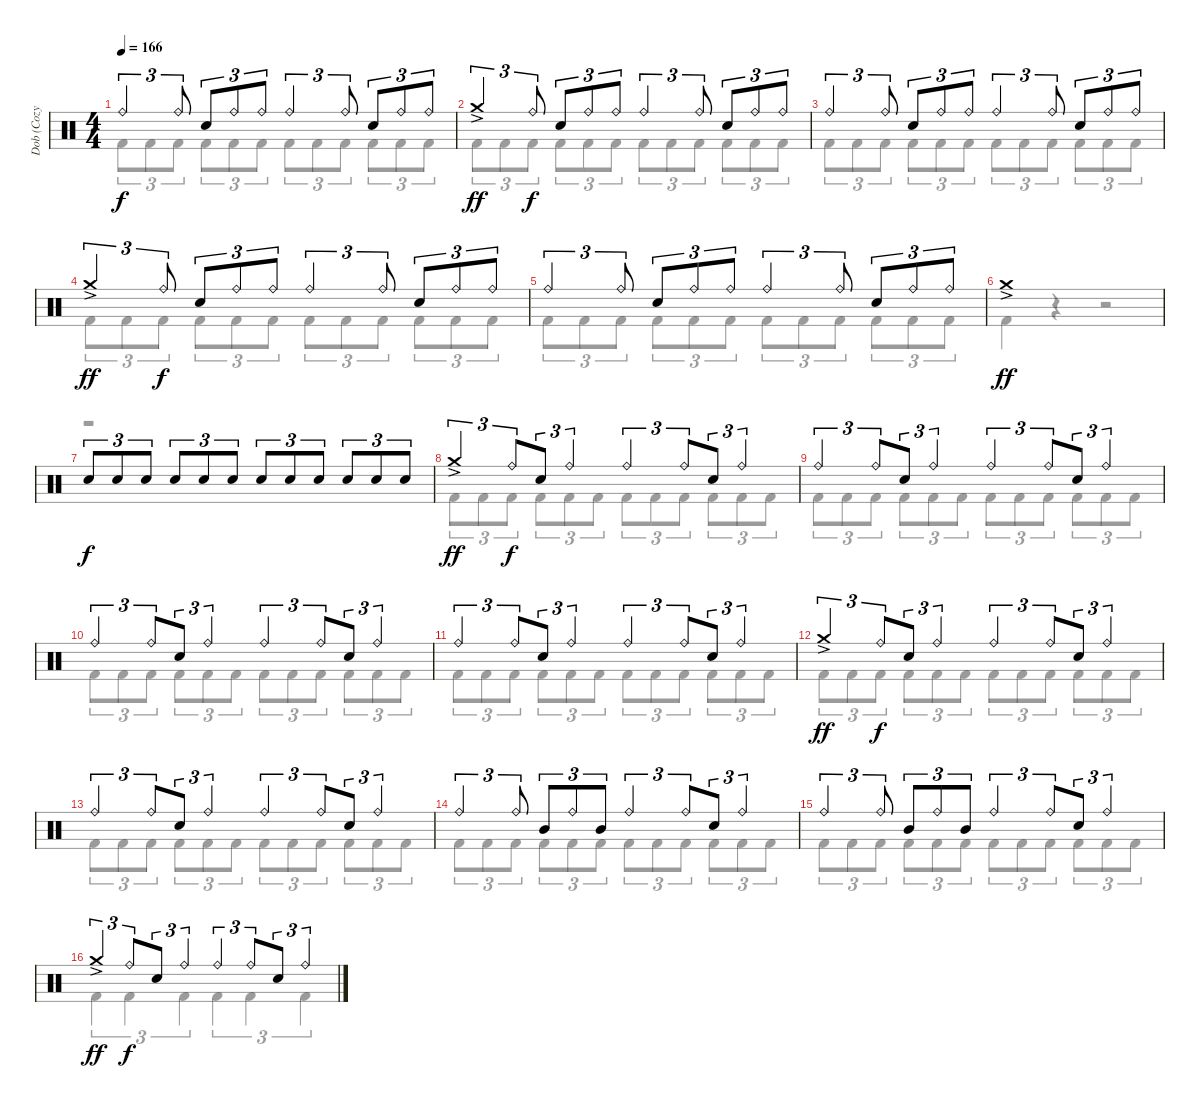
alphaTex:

\track ("Dob (Cozy Powell)" "Dob (Cozy ") {instrument percussion}
\staff {score}
\articulation defaults
\voice
\ts (4 4)
\tempo 166
\clef neutral
\ks c "Ride (bell)".4{tu (3 2) dy f} "Ride (bell)".8{tu (3 2)} "Electric Snare (hit)".8{tu (3 2)} "Ride (bell)".8{tu (3 2)} "Ride (bell)".8{tu (3 2)} "Ride (bell)".4{tu (3 2)} "Ride (bell)".8{tu (3 2)} "Electric Snare (hit)".8{tu (3 2)} "Ride (bell)".8{tu (3 2)} "Ride (bell)".8{tu (3 2)}
|
"Crash medium (hit)"{ac}.4{tu (3 2) dy ff} "Ride (bell)".8{tu (3 2) dy f} "Electric Snare (hit)".8{tu (3 2)} "Ride (bell)".8{tu (3 2)} "Ride (bell)".8{tu (3 2)} "Ride (bell)".4{tu (3 2)} "Ride (bell)".8{tu (3 2)} "Electric Snare (hit)".8{tu (3 2)} "Ride (bell)".8{tu (3 2)} "Ride (bell)".8{tu (3 2)} |
"Ride (bell)".4{tu (3 2)} "Ride (bell)".8{tu (3 2)} "Electric Snare (hit)".8{tu (3 2)} "Ride (bell)".8{tu (3 2)} "Ride (bell)".8{tu (3 2)} "Ride (bell)".4{tu (3 2)} "Ride (bell)".8{tu (3 2)} "Electric Snare (hit)".8{tu (3 2)} "Ride (bell)".8{tu (3 2)} "Ride (bell)".8{tu (3 2)} |
"Crash medium (hit)"{ac}.4{tu (3 2) dy ff} "Ride (bell)".8{tu (3 2) dy f} "Electric Snare (hit)".8{tu (3 2)} "Ride (bell)".8{tu (3 2)} "Ride (bell)".8{tu (3 2)} "Ride (bell)".4{tu (3 2)} "Ride (bell)".8{tu (3 2)} "Electric Snare (hit)".8{tu (3 2)} "Ride (bell)".8{tu (3 2)} "Ride (bell)".8{tu (3 2)} |
"Ride (bell)".4{tu (3 2)} "Ride (bell)".8{tu (3 2)} "Electric Snare (hit)".8{tu (3 2)} "Ride (bell)".8{tu (3 2)} "Ride (bell)".8{tu (3 2)} "Ride (bell)".4{tu (3 2)} "Ride (bell)".8{tu (3 2)} "Electric Snare (hit)".8{tu (3 2)} "Ride (bell)".8{tu (3 2)} "Ride (bell)".8{tu (3 2)} |
"Crash medium (hit)"{ac}.1{dy ff} |
"Electric Snare (hit)".8{tu (3 2) dy f} "Electric Snare (hit)".8{tu (3 2)} "Electric Snare (hit)".8{tu (3 2)} "Electric Snare (hit)".8{tu (3 2)} "Electric Snare (hit)".8{tu (3 2)} "Electric Snare (hit)".8{tu (3 2)} "Electric Snare (hit)".8{tu (3 2)} "Electric Snare (hit)".8{tu (3 2)} "Electric Snare (hit)".8{tu (3 2)} "Electric Snare (hit)".8{tu (3 2)} "Electric Snare (hit)".8{tu (3 2)} "Electric Snare (hit)".8{tu (3 2)} |
"Crash medium (hit)"{ac}.4{tu (3 2) dy ff} "Ride (bell)".8{tu (3 2) dy f beam merge} "Electric Snare (hit)".8{tu (3 2)} "Ride (bell)".4{tu (3 2)} "Ride (bell)".4{tu (3 2)} "Ride (bell)".8{tu (3 2) beam merge} "Electric Snare (hit)".8{tu (3 2)} "Ride (bell)".4{tu (3 2)} |
"Ride (bell)".4{tu (3 2)} "Ride (bell)".8{tu (3 2) beam merge} "Electric Snare (hit)".8{tu (3 2)} "Ride (bell)".4{tu (3 2)} "Ride (bell)".4{tu (3 2)} "Ride (bell)".8{tu (3 2) beam merge} "Electric Snare (hit)".8{tu (3 2)} "Ride (bell)".4{tu (3 2)} |
"Ride (bell)".4{tu (3 2)} "Ride (bell)".8{tu (3 2) beam merge} "Electric Snare (hit)".8{tu (3 2)} "Ride (bell)".4{tu (3 2)} "Ride (bell)".4{tu (3 2)} "Ride (bell)".8{tu (3 2) beam merge} "Electric Snare (hit)".8{tu (3 2)} "Ride (bell)".4{tu (3 2)} |
"Ride (bell)".4{tu (3 2)} "Ride (bell)".8{tu (3 2) beam merge} "Electric Snare (hit)".8{tu (3 2)} "Ride (bell)".4{tu (3 2)} "Ride (bell)".4{tu (3 2)} "Ride (bell)".8{tu (3 2) beam merge} "Electric Snare (hit)".8{tu (3 2)} "Ride (bell)".4{tu (3 2)} |
"Crash medium (hit)"{ac}.4{tu (3 2) dy ff} "Ride (bell)".8{tu (3 2) dy f beam merge} "Electric Snare (hit)".8{tu (3 2)} "Ride (bell)".4{tu (3 2)} "Ride (bell)".4{tu (3 2)} "Ride (bell)".8{tu (3 2) beam merge} "Electric Snare (hit)".8{tu (3 2)} "Ride (bell)".4{tu (3 2)} |
"Ride (bell)".4{tu (3 2)} "Ride (bell)".8{tu (3 2) beam merge} "Electric Snare (hit)".8{tu (3 2)} "Ride (bell)".4{tu (3 2)} "Ride (bell)".4{tu (3 2)} "Ride (bell)".8{tu (3 2) beam merge} "Electric Snare (hit)".8{tu (3 2)} "Ride (bell)".4{tu (3 2)} |
"Ride (bell)".4{tu (3 2)} "Ride (bell)".8{tu (3 2)} "Mid Tom (hit)".8{tu (3 2)} "Ride (bell)".8{tu (3 2)} "Mid Tom (hit)".8{tu (3 2)} "Ride (bell)".4{tu (3 2)} "Ride (bell)".8{tu (3 2) beam merge} "Electric Snare (hit)".8{tu (3 2)} "Ride (bell)".4{tu (3 2)} |
"Ride (bell)".4{tu (3 2)} "Ride (bell)".8{tu (3 2)} "Mid Tom (hit)".8{tu (3 2)} "Ride (bell)".8{tu (3 2)} "Mid Tom (hit)".8{tu (3 2)} "Ride (bell)".4{tu (3 2)} "Ride (bell)".8{tu (3 2) beam merge} "Electric Snare (hit)".8{tu (3 2)} "Ride (bell)".4{tu (3 2)} |
"Crash medium (hit)"{ac}.4{tu (3 2) dy ff} "Ride (bell)".8{tu (3 2) dy f beam merge} "Electric Snare (hit)".8{tu (3 2)} "Ride (bell)".4{tu (3 2)} "Ride (bell)".4{tu (3 2)} "Ride (bell)".8{tu (3 2) beam merge} "Electric Snare (hit)".8{tu (3 2)} "Ride (bell)".4{tu (3 2)}
\voice
\clef neutral
\ottava regular
\simile none
\ks c "Kick (hit) 2".8{tu (3 2) dy f} "Kick (hit) 2".8{tu (3 2)} "Kick (hit) 2".8{tu (3 2)} "Kick (hit) 2".8{tu (3 2)} "Kick (hit) 2".8{tu (3 2)} "Kick (hit) 2".8{tu (3 2)} "Kick (hit) 2".8{tu (3 2)} "Kick (hit) 2".8{tu (3 2)} "Kick (hit) 2".8{tu (3 2)} "Kick (hit) 2".8{tu (3 2)} "Kick (hit) 2".8{tu (3 2)} "Kick (hit) 2".8{tu (3 2)}
|
"Kick (hit) 2".8{tu (3 2)} "Kick (hit) 2".8{tu (3 2)} "Kick (hit) 2".8{tu (3 2)} "Kick (hit) 2".8{tu (3 2)} "Kick (hit) 2".8{tu (3 2)} "Kick (hit) 2".8{tu (3 2)} "Kick (hit) 2".8{tu (3 2)} "Kick (hit) 2".8{tu (3 2)} "Kick (hit) 2".8{tu (3 2)} "Kick (hit) 2".8{tu (3 2)} "Kick (hit) 2".8{tu (3 2)} "Kick (hit) 2".8{tu (3 2)} |
"Kick (hit) 2".8{tu (3 2)} "Kick (hit) 2".8{tu (3 2)} "Kick (hit) 2".8{tu (3 2)} "Kick (hit) 2".8{tu (3 2)} "Kick (hit) 2".8{tu (3 2)} "Kick (hit) 2".8{tu (3 2)} "Kick (hit) 2".8{tu (3 2)} "Kick (hit) 2".8{tu (3 2)} "Kick (hit) 2".8{tu (3 2)} "Kick (hit) 2".8{tu (3 2)} "Kick (hit) 2".8{tu (3 2)} "Kick (hit) 2".8{tu (3 2)} |
"Kick (hit) 2".8{tu (3 2)} "Kick (hit) 2".8{tu (3 2)} "Kick (hit) 2".8{tu (3 2)} "Kick (hit) 2".8{tu (3 2)} "Kick (hit) 2".8{tu (3 2)} "Kick (hit) 2".8{tu (3 2)} "Kick (hit) 2".8{tu (3 2)} "Kick (hit) 2".8{tu (3 2)} "Kick (hit) 2".8{tu (3 2)} "Kick (hit) 2".8{tu (3 2)} "Kick (hit) 2".8{tu (3 2)} "Kick (hit) 2".8{tu (3 2)} |
"Kick (hit) 2".8{tu (3 2)} "Kick (hit) 2".8{tu (3 2)} "Kick (hit) 2".8{tu (3 2)} "Kick (hit) 2".8{tu (3 2)} "Kick (hit) 2".8{tu (3 2)} "Kick (hit) 2".8{tu (3 2)} "Kick (hit) 2".8{tu (3 2)} "Kick (hit) 2".8{tu (3 2)} "Kick (hit) 2".8{tu (3 2)} "Kick (hit) 2".8{tu (3 2)} "Kick (hit) 2".8{tu (3 2)} "Kick (hit) 2".8{tu (3 2)} |
"Kick (hit) 2".4 r.4 r.2 |
r.1 |
"Kick (hit) 2".8{tu (3 2)} "Kick (hit) 2".8{tu (3 2)} "Kick (hit) 2".8{tu (3 2)} "Kick (hit) 2".8{tu (3 2)} "Kick (hit) 2".8{tu (3 2)} "Kick (hit) 2".8{tu (3 2)} "Kick (hit) 2".8{tu (3 2)} "Kick (hit) 2".8{tu (3 2)} "Kick (hit) 2".8{tu (3 2)} "Kick (hit) 2".8{tu (3 2)} "Kick (hit) 2".8{tu (3 2)} "Kick (hit) 2".8{tu (3 2)} |
"Kick (hit) 2".8{tu (3 2)} "Kick (hit) 2".8{tu (3 2)} "Kick (hit) 2".8{tu (3 2)} "Kick (hit) 2".8{tu (3 2)} "Kick (hit) 2".8{tu (3 2)} "Kick (hit) 2".8{tu (3 2)} "Kick (hit) 2".8{tu (3 2)} "Kick (hit) 2".8{tu (3 2)} "Kick (hit) 2".8{tu (3 2)} "Kick (hit) 2".8{tu (3 2)} "Kick (hit) 2".8{tu (3 2)} "Kick (hit) 2".8{tu (3 2)} |
"Kick (hit) 2".8{tu (3 2)} "Kick (hit) 2".8{tu (3 2)} "Kick (hit) 2".8{tu (3 2)} "Kick (hit) 2".8{tu (3 2)} "Kick (hit) 2".8{tu (3 2)} "Kick (hit) 2".8{tu (3 2)} "Kick (hit) 2".8{tu (3 2)} "Kick (hit) 2".8{tu (3 2)} "Kick (hit) 2".8{tu (3 2)} "Kick (hit) 2".8{tu (3 2)} "Kick (hit) 2".8{tu (3 2)} "Kick (hit) 2".8{tu (3 2)} |
"Kick (hit) 2".8{tu (3 2)} "Kick (hit) 2".8{tu (3 2)} "Kick (hit) 2".8{tu (3 2)} "Kick (hit) 2".8{tu (3 2)} "Kick (hit) 2".8{tu (3 2)} "Kick (hit) 2".8{tu (3 2)} "Kick (hit) 2".8{tu (3 2)} "Kick (hit) 2".8{tu (3 2)} "Kick (hit) 2".8{tu (3 2)} "Kick (hit) 2".8{tu (3 2)} "Kick (hit) 2".8{tu (3 2)} "Kick (hit) 2".8{tu (3 2)} |
"Kick (hit) 2".8{tu (3 2)} "Kick (hit) 2".8{tu (3 2)} "Kick (hit) 2".8{tu (3 2)} "Kick (hit) 2".8{tu (3 2)} "Kick (hit) 2".8{tu (3 2)} "Kick (hit) 2".8{tu (3 2)} "Kick (hit) 2".8{tu (3 2)} "Kick (hit) 2".8{tu (3 2)} "Kick (hit) 2".8{tu (3 2)} "Kick (hit) 2".8{tu (3 2)} "Kick (hit) 2".8{tu (3 2)} "Kick (hit) 2".8{tu (3 2)} |
"Kick (hit) 2".8{tu (3 2)} "Kick (hit) 2".8{tu (3 2)} "Kick (hit) 2".8{tu (3 2)} "Kick (hit) 2".8{tu (3 2)} "Kick (hit) 2".8{tu (3 2)} "Kick (hit) 2".8{tu (3 2)} "Kick (hit) 2".8{tu (3 2)} "Kick (hit) 2".8{tu (3 2)} "Kick (hit) 2".8{tu (3 2)} "Kick (hit) 2".8{tu (3 2)} "Kick (hit) 2".8{tu (3 2)} "Kick (hit) 2".8{tu (3 2)} |
"Kick (hit) 2".8{tu (3 2)} "Kick (hit) 2".8{tu (3 2)} "Kick (hit) 2".8{tu (3 2)} "Kick (hit) 2".8{tu (3 2)} "Kick (hit) 2".8{tu (3 2)} "Kick (hit) 2".8{tu (3 2)} "Kick (hit) 2".8{tu (3 2)} "Kick (hit) 2".8{tu (3 2)} "Kick (hit) 2".8{tu (3 2)} "Kick (hit) 2".8{tu (3 2)} "Kick (hit) 2".8{tu (3 2)} "Kick (hit) 2".8{tu (3 2)} |
"Kick (hit) 2".8{tu (3 2)} "Kick (hit) 2".8{tu (3 2)} "Kick (hit) 2".8{tu (3 2)} "Kick (hit) 2".8{tu (3 2)} "Kick (hit) 2".8{tu (3 2)} "Kick (hit) 2".8{tu (3 2)} "Kick (hit) 2".8{tu (3 2)} "Kick (hit) 2".8{tu (3 2)} "Kick (hit) 2".8{tu (3 2)} "Kick (hit) 2".8{tu (3 2)} "Kick (hit) 2".8{tu (3 2)} "Kick (hit) 2".8{tu (3 2)} |
"Kick (hit) 2".4{tu (3 2)} "Kick (hit) 2".4{tu (3 2)} "Kick (hit) 2".4{tu (3 2)} "Kick (hit) 2".4{tu (3 2)} "Kick (hit) 2".4{tu (3 2)} "Kick (hit) 2".4{tu (3 2)}
